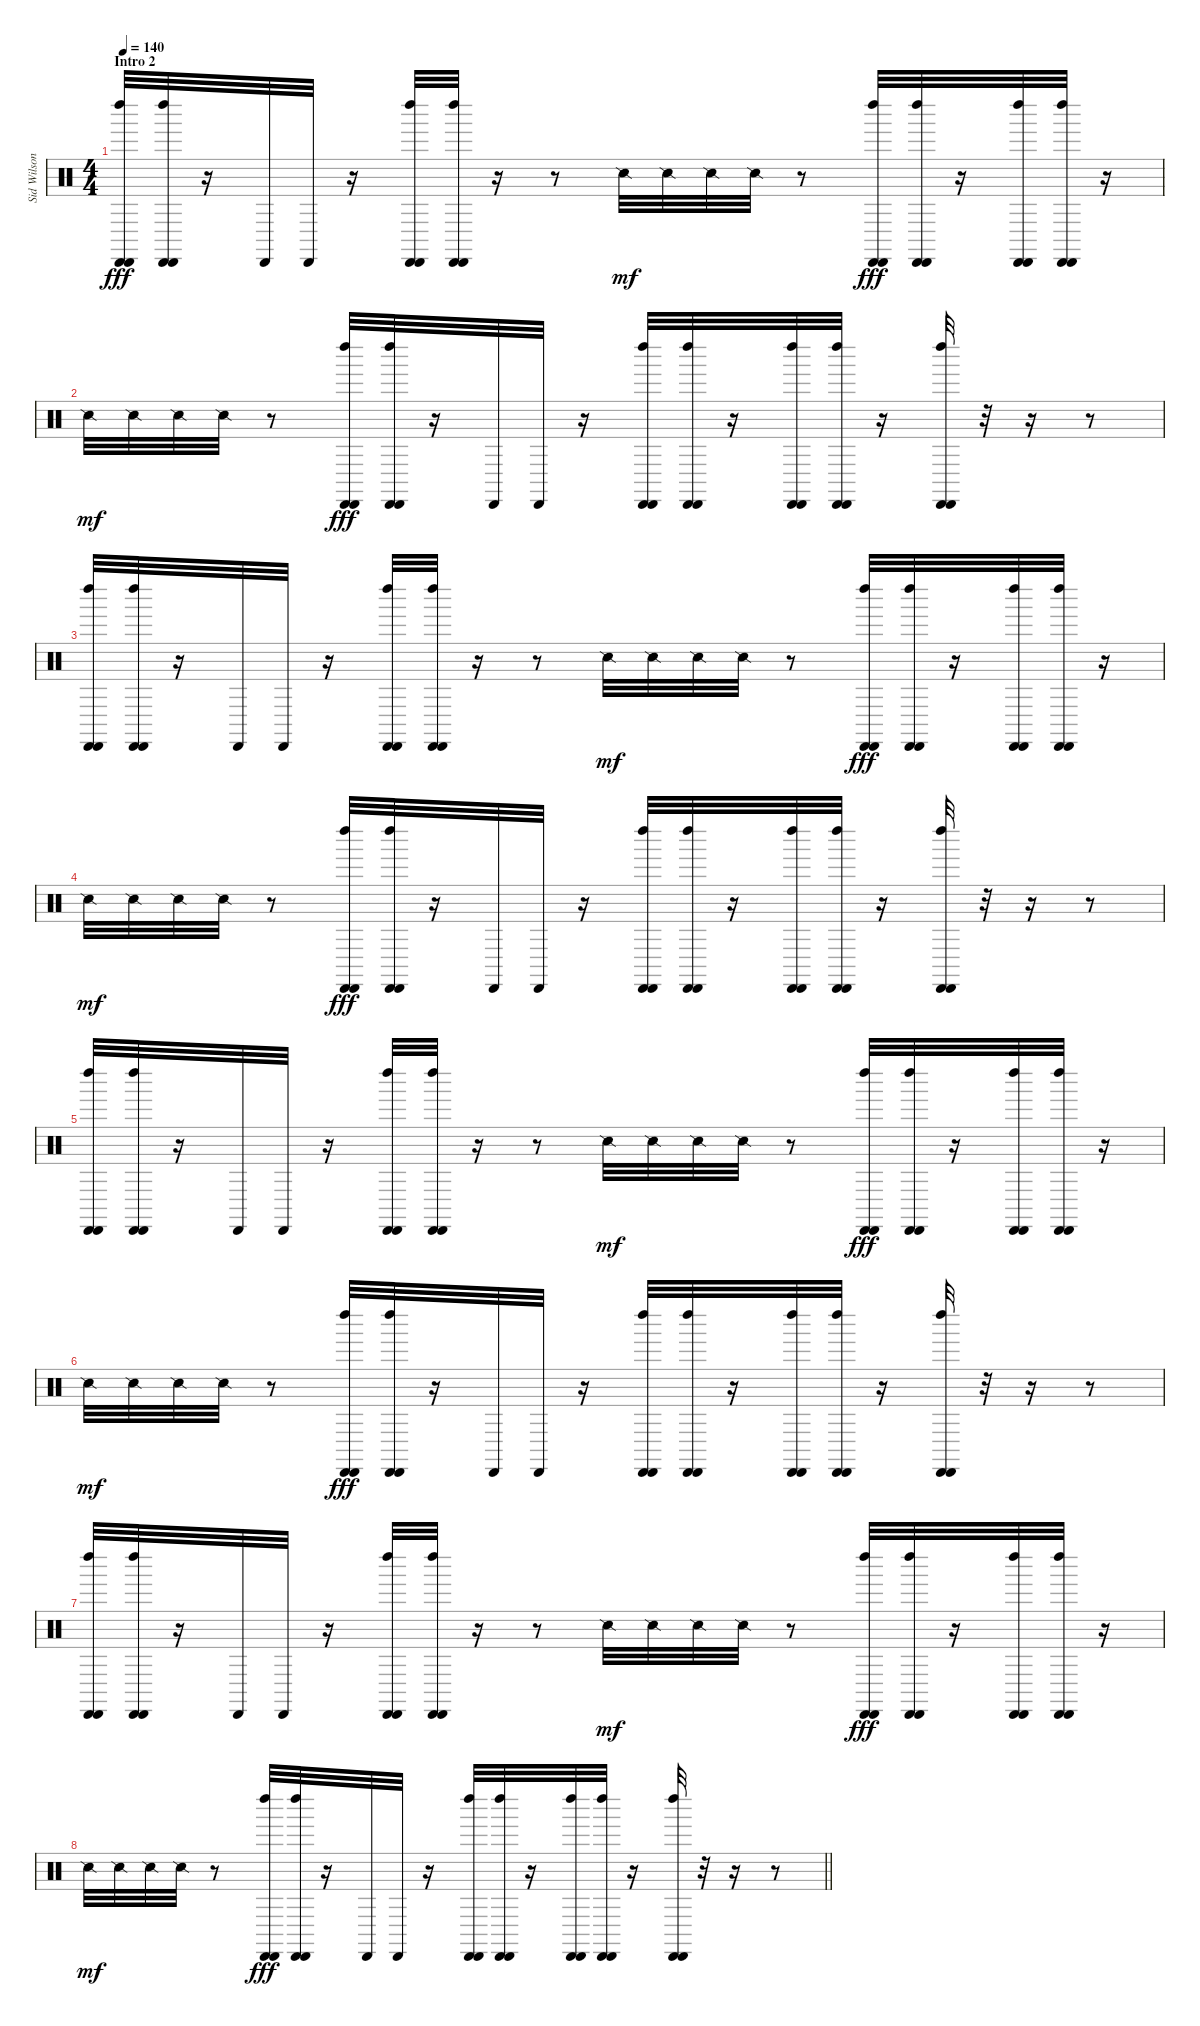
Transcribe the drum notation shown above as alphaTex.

\track ("Sid Wilson" "Sid Wilson") {instrument percussion}
\staff {score}
\articulation defaults
\ts (4 4)
\section ("" "Intro 2")
\tempo 140
\clef neutral
\ks c
("Cabasa (hit)" "Left Maraca (hit)" "Cabasa (hit)").32{dy fff} ("Cabasa (hit)" "Left Maraca (hit)" "Cabasa (hit)").32 r.16 "Cabasa (hit)".32 "Cabasa (hit)".32 r.16 ("Cabasa (hit)" "Left Maraca (hit)" "Cabasa (hit)").32 ("Cabasa (hit)" "Left Maraca (hit)" "Cabasa (hit)").32 r.16 r.8 "Snare (side stick) 2".32{dy mf} "Snare (side stick) 2".32 "Snare (side stick) 2".32 "Snare (side stick) 2".32 r.8 ("Cabasa (hit)" "Left Maraca (hit)" "Cabasa (hit)").32{dy fff} ("Cabasa (hit)" "Left Maraca (hit)" "Cabasa (hit)").32 r.16 ("Cabasa (hit)" "Left Maraca (hit)" "Cabasa (hit)").32 ("Cabasa (hit)" "Left Maraca (hit)" "Cabasa (hit)").32 r.16 |
"Snare (side stick) 2".32{dy mf} "Snare (side stick) 2".32 "Snare (side stick) 2".32 "Snare (side stick) 2".32 r.8 ("Cabasa (hit)" "Left Maraca (hit)" "Cabasa (hit)").32{dy fff} ("Cabasa (hit)" "Left Maraca (hit)" "Cabasa (hit)").32 r.16 "Cabasa (hit)".32 "Cabasa (hit)".32 r.16 ("Cabasa (hit)" "Left Maraca (hit)" "Cabasa (hit)").32 ("Cabasa (hit)" "Left Maraca (hit)" "Cabasa (hit)").32 r.16 ("Cabasa (hit)" "Left Maraca (hit)" "Cabasa (hit)").32 ("Cabasa (hit)" "Left Maraca (hit)" "Cabasa (hit)").32 r.16 ("Cabasa (hit)" "Left Maraca (hit)" "Cabasa (hit)").32 r.32 r.16 r.8 |
("Cabasa (hit)" "Left Maraca (hit)" "Cabasa (hit)").32 ("Cabasa (hit)" "Left Maraca (hit)" "Cabasa (hit)").32 r.16 "Cabasa (hit)".32 "Cabasa (hit)".32 r.16 ("Cabasa (hit)" "Left Maraca (hit)" "Cabasa (hit)").32 ("Cabasa (hit)" "Left Maraca (hit)" "Cabasa (hit)").32 r.16 r.8 "Snare (side stick) 2".32{dy mf} "Snare (side stick) 2".32 "Snare (side stick) 2".32 "Snare (side stick) 2".32 r.8 ("Cabasa (hit)" "Left Maraca (hit)" "Cabasa (hit)").32{dy fff} ("Cabasa (hit)" "Left Maraca (hit)" "Cabasa (hit)").32 r.16 ("Cabasa (hit)" "Left Maraca (hit)" "Cabasa (hit)").32 ("Cabasa (hit)" "Left Maraca (hit)" "Cabasa (hit)").32 r.16 |
"Snare (side stick) 2".32{dy mf} "Snare (side stick) 2".32 "Snare (side stick) 2".32 "Snare (side stick) 2".32 r.8 ("Cabasa (hit)" "Left Maraca (hit)" "Cabasa (hit)").32{dy fff} ("Cabasa (hit)" "Left Maraca (hit)" "Cabasa (hit)").32 r.16 "Cabasa (hit)".32 "Cabasa (hit)".32 r.16 ("Cabasa (hit)" "Left Maraca (hit)" "Cabasa (hit)").32 ("Cabasa (hit)" "Left Maraca (hit)" "Cabasa (hit)").32 r.16 ("Cabasa (hit)" "Left Maraca (hit)" "Cabasa (hit)").32 ("Cabasa (hit)" "Left Maraca (hit)" "Cabasa (hit)").32 r.16 ("Cabasa (hit)" "Left Maraca (hit)" "Cabasa (hit)").32 r.32 r.16 r.8 |
("Cabasa (hit)" "Left Maraca (hit)" "Cabasa (hit)").32 ("Cabasa (hit)" "Left Maraca (hit)" "Cabasa (hit)").32 r.16 "Cabasa (hit)".32 "Cabasa (hit)".32 r.16 ("Cabasa (hit)" "Left Maraca (hit)" "Cabasa (hit)").32 ("Cabasa (hit)" "Left Maraca (hit)" "Cabasa (hit)").32 r.16 r.8 "Snare (side stick) 2".32{dy mf} "Snare (side stick) 2".32 "Snare (side stick) 2".32 "Snare (side stick) 2".32 r.8 ("Cabasa (hit)" "Left Maraca (hit)" "Cabasa (hit)").32{dy fff} ("Cabasa (hit)" "Left Maraca (hit)" "Cabasa (hit)").32 r.16 ("Cabasa (hit)" "Left Maraca (hit)" "Cabasa (hit)").32 ("Cabasa (hit)" "Left Maraca (hit)" "Cabasa (hit)").32 r.16 |
"Snare (side stick) 2".32{dy mf} "Snare (side stick) 2".32 "Snare (side stick) 2".32 "Snare (side stick) 2".32 r.8 ("Cabasa (hit)" "Left Maraca (hit)" "Cabasa (hit)").32{dy fff} ("Cabasa (hit)" "Left Maraca (hit)" "Cabasa (hit)").32 r.16 "Cabasa (hit)".32 "Cabasa (hit)".32 r.16 ("Cabasa (hit)" "Left Maraca (hit)" "Cabasa (hit)").32 ("Cabasa (hit)" "Left Maraca (hit)" "Cabasa (hit)").32 r.16 ("Cabasa (hit)" "Left Maraca (hit)" "Cabasa (hit)").32 ("Cabasa (hit)" "Left Maraca (hit)" "Cabasa (hit)").32 r.16 ("Cabasa (hit)" "Left Maraca (hit)" "Cabasa (hit)").32 r.32 r.16 r.8 |
("Cabasa (hit)" "Left Maraca (hit)" "Cabasa (hit)").32 ("Cabasa (hit)" "Left Maraca (hit)" "Cabasa (hit)").32 r.16 "Cabasa (hit)".32 "Cabasa (hit)".32 r.16 ("Cabasa (hit)" "Left Maraca (hit)" "Cabasa (hit)").32 ("Cabasa (hit)" "Left Maraca (hit)" "Cabasa (hit)").32 r.16 r.8 "Snare (side stick) 2".32{dy mf} "Snare (side stick) 2".32 "Snare (side stick) 2".32 "Snare (side stick) 2".32 r.8 ("Cabasa (hit)" "Left Maraca (hit)" "Cabasa (hit)").32{dy fff} ("Cabasa (hit)" "Left Maraca (hit)" "Cabasa (hit)").32 r.16 ("Cabasa (hit)" "Left Maraca (hit)" "Cabasa (hit)").32 ("Cabasa (hit)" "Left Maraca (hit)" "Cabasa (hit)").32 r.16 |
\barLineRight lightlight "Snare (side stick) 2".32{dy mf} "Snare (side stick) 2".32 "Snare (side stick) 2".32 "Snare (side stick) 2".32
r.8 ("Cabasa (hit)" "Left Maraca (hit)" "Cabasa (hit)").32{dy fff} ("Cabasa (hit)" "Left Maraca (hit)" "Cabasa (hit)").32 r.16 "Cabasa (hit)".32 "Cabasa (hit)".32 r.16 ("Cabasa (hit)" "Left Maraca (hit)" "Cabasa (hit)").32 ("Cabasa (hit)" "Left Maraca (hit)" "Cabasa (hit)").32 r.16 ("Cabasa (hit)" "Left Maraca (hit)" "Cabasa (hit)").32 ("Cabasa (hit)" "Left Maraca (hit)" "Cabasa (hit)").32 r.16 ("Cabasa (hit)" "Left Maraca (hit)" "Cabasa (hit)").32 r.32 r.16 r.8
